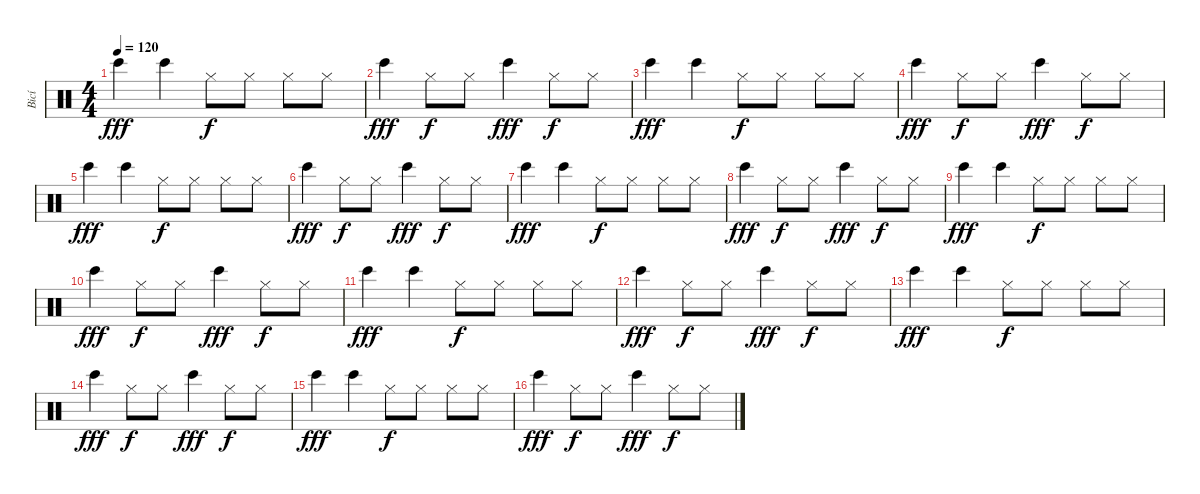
\track ("Bicí" "Bicí") {instrument percussion}
\staff {score}
\articulation defaults
\ts (4 4)
\tempo 120
\clef neutral
\ks c "Bongo High (hit)".4{dy fff} "Bongo High (hit)".4 "Hi-Hat (closed)".8{dy f} "Hi-Hat (closed)".8 "Hi-Hat (closed)".8 "Hi-Hat (closed)".8
|
"Bongo High (hit)".4{dy fff} "Hi-Hat (closed)".8{dy f} "Hi-Hat (closed)".8 "Bongo High (hit)".4{dy fff} "Hi-Hat (closed)".8{dy f} "Hi-Hat (closed)".8 |
"Bongo High (hit)".4{dy fff} "Bongo High (hit)".4 "Hi-Hat (closed)".8{dy f} "Hi-Hat (closed)".8 "Hi-Hat (closed)".8 "Hi-Hat (closed)".8 |
"Bongo High (hit)".4{dy fff} "Hi-Hat (closed)".8{dy f} "Hi-Hat (closed)".8 "Bongo High (hit)".4{dy fff} "Hi-Hat (closed)".8{dy f} "Hi-Hat (closed)".8 |
"Bongo High (hit)".4{dy fff} "Bongo High (hit)".4 "Hi-Hat (closed)".8{dy f} "Hi-Hat (closed)".8 "Hi-Hat (closed)".8 "Hi-Hat (closed)".8 |
"Bongo High (hit)".4{dy fff} "Hi-Hat (closed)".8{dy f} "Hi-Hat (closed)".8 "Bongo High (hit)".4{dy fff} "Hi-Hat (closed)".8{dy f} "Hi-Hat (closed)".8 |
"Bongo High (hit)".4{dy fff} "Bongo High (hit)".4 "Hi-Hat (closed)".8{dy f} "Hi-Hat (closed)".8 "Hi-Hat (closed)".8 "Hi-Hat (closed)".8 |
"Bongo High (hit)".4{dy fff} "Hi-Hat (closed)".8{dy f} "Hi-Hat (closed)".8 "Bongo High (hit)".4{dy fff} "Hi-Hat (closed)".8{dy f} "Hi-Hat (closed)".8 |
"Bongo High (hit)".4{dy fff} "Bongo High (hit)".4 "Hi-Hat (closed)".8{dy f} "Hi-Hat (closed)".8 "Hi-Hat (closed)".8 "Hi-Hat (closed)".8 |
"Bongo High (hit)".4{dy fff} "Hi-Hat (closed)".8{dy f} "Hi-Hat (closed)".8 "Bongo High (hit)".4{dy fff} "Hi-Hat (closed)".8{dy f} "Hi-Hat (closed)".8 |
"Bongo High (hit)".4{dy fff} "Bongo High (hit)".4 "Hi-Hat (closed)".8{dy f} "Hi-Hat (closed)".8 "Hi-Hat (closed)".8 "Hi-Hat (closed)".8 |
"Bongo High (hit)".4{dy fff} "Hi-Hat (closed)".8{dy f} "Hi-Hat (closed)".8 "Bongo High (hit)".4{dy fff} "Hi-Hat (closed)".8{dy f} "Hi-Hat (closed)".8 |
"Bongo High (hit)".4{dy fff} "Bongo High (hit)".4 "Hi-Hat (closed)".8{dy f} "Hi-Hat (closed)".8 "Hi-Hat (closed)".8 "Hi-Hat (closed)".8 |
"Bongo High (hit)".4{dy fff} "Hi-Hat (closed)".8{dy f} "Hi-Hat (closed)".8 "Bongo High (hit)".4{dy fff} "Hi-Hat (closed)".8{dy f} "Hi-Hat (closed)".8 |
"Bongo High (hit)".4{dy fff} "Bongo High (hit)".4 "Hi-Hat (closed)".8{dy f} "Hi-Hat (closed)".8 "Hi-Hat (closed)".8 "Hi-Hat (closed)".8 |
"Bongo High (hit)".4{dy fff} "Hi-Hat (closed)".8{dy f} "Hi-Hat (closed)".8 "Bongo High (hit)".4{dy fff} "Hi-Hat (closed)".8{dy f} "Hi-Hat (closed)".8
